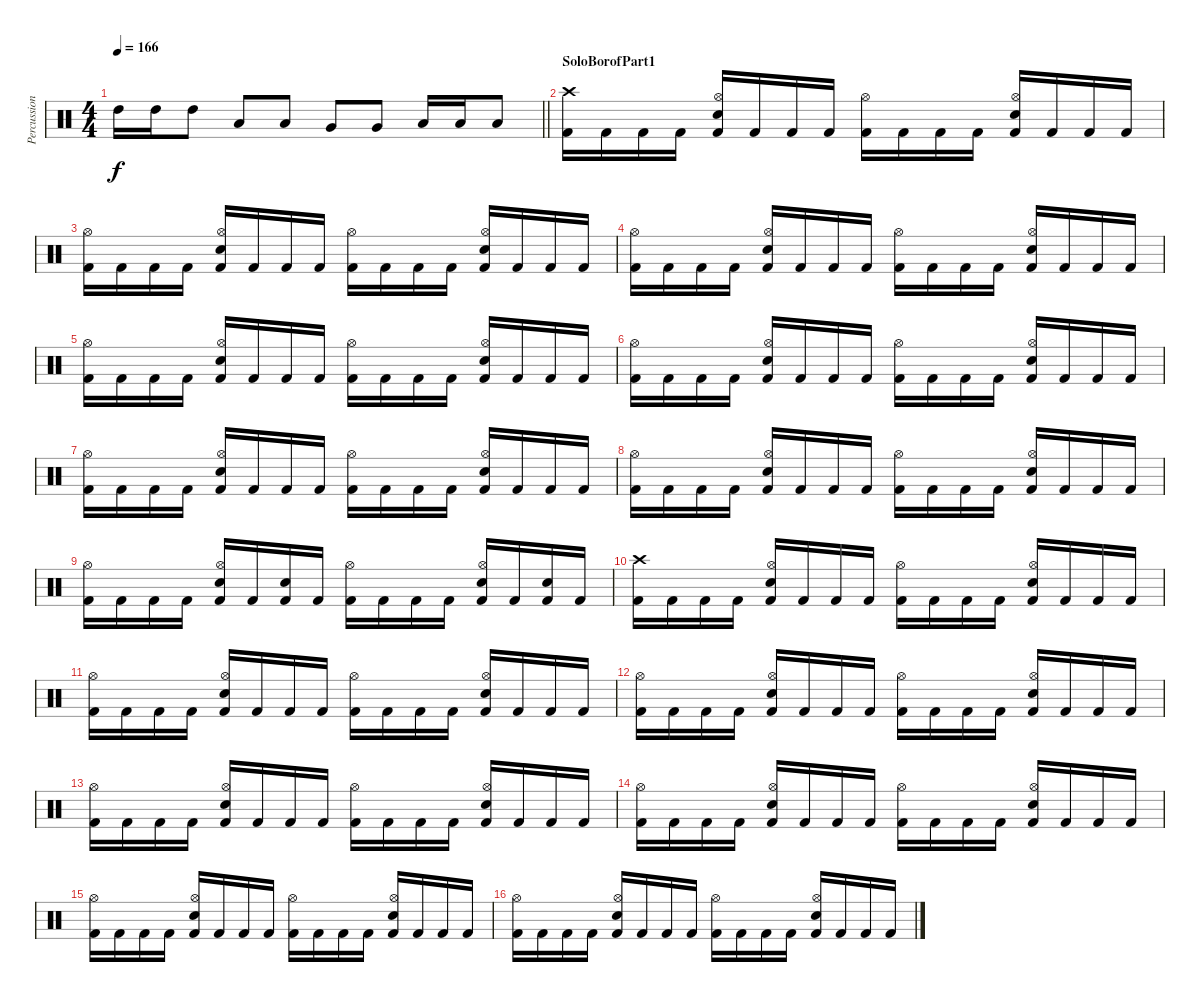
\track ("Percussion" "Percussion") {solo instrument percussion}
\staff {score}
\articulation defaults
\ts (4 4)
\tempo 166
\clef neutral
\barLineRight lightlight
\ks c "High Tom (hit)".16{dy f} "High Tom (hit)".16 "High Tom (hit)".8 "Low Tom (hit)".8 "Low Tom (hit)".8 "Very Low Tom (hit)".8 "Very Low Tom (hit)".8 "Low Floor Tom (hit)".16 "Low Floor Tom (hit)".16 "Low Floor Tom (hit)".8
|
\section ("" "SoloBorofPart1")
\ks aminor
("Crash high (hit)" "Kick (hit) 2").16 "Kick (hit) 2".16 "Kick (hit) 2".16 "Kick (hit) 2".16 ("Hi-Hat (open)" "Snare (hit) 2" "Kick (hit) 2").16 "Kick (hit) 2".16 "Kick (hit) 2".16 "Kick (hit) 2".16 ("Hi-Hat (open)" "Kick (hit) 2").16 "Kick (hit) 2".16 "Kick (hit) 2".16 "Kick (hit) 2".16 ("Hi-Hat (open)" "Snare (hit) 2" "Kick (hit) 2").16 "Kick (hit) 2".16 "Kick (hit) 2".16 "Kick (hit) 2".16 |
("Hi-Hat (open)" "Kick (hit) 2").16 "Kick (hit) 2".16 "Kick (hit) 2".16 "Kick (hit) 2".16 ("Hi-Hat (open)" "Snare (hit) 2" "Kick (hit) 2").16 "Kick (hit) 2".16 "Kick (hit) 2".16 "Kick (hit) 2".16 ("Hi-Hat (open)" "Kick (hit) 2").16 "Kick (hit) 2".16 "Kick (hit) 2".16 "Kick (hit) 2".16 ("Hi-Hat (open)" "Snare (hit) 2" "Kick (hit) 2").16 "Kick (hit) 2".16 "Kick (hit) 2".16 "Kick (hit) 2".16 |
("Hi-Hat (open)" "Kick (hit) 2").16 "Kick (hit) 2".16 "Kick (hit) 2".16 "Kick (hit) 2".16 ("Hi-Hat (open)" "Snare (hit) 2" "Kick (hit) 2").16 "Kick (hit) 2".16 "Kick (hit) 2".16 "Kick (hit) 2".16 ("Hi-Hat (open)" "Kick (hit) 2").16 "Kick (hit) 2".16 "Kick (hit) 2".16 "Kick (hit) 2".16 ("Hi-Hat (open)" "Snare (hit) 2" "Kick (hit) 2").16 "Kick (hit) 2".16 "Kick (hit) 2".16 "Kick (hit) 2".16 |
("Hi-Hat (open)" "Kick (hit) 2").16 "Kick (hit) 2".16 "Kick (hit) 2".16 "Kick (hit) 2".16 ("Hi-Hat (open)" "Snare (hit) 2" "Kick (hit) 2").16 "Kick (hit) 2".16 "Kick (hit) 2".16 "Kick (hit) 2".16 ("Hi-Hat (open)" "Kick (hit) 2").16 "Kick (hit) 2".16 "Kick (hit) 2".16 "Kick (hit) 2".16 ("Hi-Hat (open)" "Snare (hit) 2" "Kick (hit) 2").16 "Kick (hit) 2".16 "Kick (hit) 2".16 "Kick (hit) 2".16 |
("Hi-Hat (open)" "Kick (hit) 2").16 "Kick (hit) 2".16 "Kick (hit) 2".16 "Kick (hit) 2".16 ("Hi-Hat (open)" "Snare (hit) 2" "Kick (hit) 2").16 "Kick (hit) 2".16 "Kick (hit) 2".16 "Kick (hit) 2".16 ("Hi-Hat (open)" "Kick (hit) 2").16 "Kick (hit) 2".16 "Kick (hit) 2".16 "Kick (hit) 2".16 ("Hi-Hat (open)" "Snare (hit) 2" "Kick (hit) 2").16 "Kick (hit) 2".16 "Kick (hit) 2".16 "Kick (hit) 2".16 |
("Hi-Hat (open)" "Kick (hit) 2").16 "Kick (hit) 2".16 "Kick (hit) 2".16 "Kick (hit) 2".16 ("Hi-Hat (open)" "Snare (hit) 2" "Kick (hit) 2").16 "Kick (hit) 2".16 "Kick (hit) 2".16 "Kick (hit) 2".16 ("Hi-Hat (open)" "Kick (hit) 2").16 "Kick (hit) 2".16 "Kick (hit) 2".16 "Kick (hit) 2".16 ("Hi-Hat (open)" "Snare (hit) 2" "Kick (hit) 2").16 "Kick (hit) 2".16 "Kick (hit) 2".16 "Kick (hit) 2".16 |
("Hi-Hat (open)" "Kick (hit) 2").16 "Kick (hit) 2".16 "Kick (hit) 2".16 "Kick (hit) 2".16 ("Hi-Hat (open)" "Snare (hit) 2" "Kick (hit) 2").16 "Kick (hit) 2".16 "Kick (hit) 2".16 "Kick (hit) 2".16 ("Hi-Hat (open)" "Kick (hit) 2").16 "Kick (hit) 2".16 "Kick (hit) 2".16 "Kick (hit) 2".16 ("Hi-Hat (open)" "Snare (hit) 2" "Kick (hit) 2").16 "Kick (hit) 2".16 "Kick (hit) 2".16 "Kick (hit) 2".16 |
("Hi-Hat (open)" "Kick (hit) 2").16 "Kick (hit) 2".16 "Kick (hit) 2".16 "Kick (hit) 2".16 ("Hi-Hat (open)" "Snare (hit) 2" "Kick (hit) 2").16 "Kick (hit) 2".16 ("Snare (hit) 2" "Kick (hit) 2").16 "Kick (hit) 2".16 ("Hi-Hat (open)" "Kick (hit) 2").16 "Kick (hit) 2".16 "Kick (hit) 2".16 "Kick (hit) 2".16 ("Hi-Hat (open)" "Snare (hit) 2" "Kick (hit) 2").16 "Kick (hit) 2".16 ("Snare (hit) 2" "Kick (hit) 2").16 "Kick (hit) 2".16 |
("Crash high (hit)" "Kick (hit) 2").16 "Kick (hit) 2".16 "Kick (hit) 2".16 "Kick (hit) 2".16 ("Hi-Hat (open)" "Snare (hit) 2" "Kick (hit) 2").16 "Kick (hit) 2".16 "Kick (hit) 2".16 "Kick (hit) 2".16 ("Hi-Hat (open)" "Kick (hit) 2").16 "Kick (hit) 2".16 "Kick (hit) 2".16 "Kick (hit) 2".16 ("Hi-Hat (open)" "Snare (hit) 2" "Kick (hit) 2").16 "Kick (hit) 2".16 "Kick (hit) 2".16 "Kick (hit) 2".16 |
("Hi-Hat (open)" "Kick (hit) 2").16 "Kick (hit) 2".16 "Kick (hit) 2".16 "Kick (hit) 2".16 ("Hi-Hat (open)" "Snare (hit) 2" "Kick (hit) 2").16 "Kick (hit) 2".16 "Kick (hit) 2".16 "Kick (hit) 2".16 ("Hi-Hat (open)" "Kick (hit) 2").16 "Kick (hit) 2".16 "Kick (hit) 2".16 "Kick (hit) 2".16 ("Hi-Hat (open)" "Snare (hit) 2" "Kick (hit) 2").16 "Kick (hit) 2".16 "Kick (hit) 2".16 "Kick (hit) 2".16 |
("Hi-Hat (open)" "Kick (hit) 2").16 "Kick (hit) 2".16 "Kick (hit) 2".16 "Kick (hit) 2".16 ("Hi-Hat (open)" "Snare (hit) 2" "Kick (hit) 2").16 "Kick (hit) 2".16 "Kick (hit) 2".16 "Kick (hit) 2".16 ("Hi-Hat (open)" "Kick (hit) 2").16 "Kick (hit) 2".16 "Kick (hit) 2".16 "Kick (hit) 2".16 ("Hi-Hat (open)" "Snare (hit) 2" "Kick (hit) 2").16 "Kick (hit) 2".16 "Kick (hit) 2".16 "Kick (hit) 2".16 |
("Hi-Hat (open)" "Kick (hit) 2").16 "Kick (hit) 2".16 "Kick (hit) 2".16 "Kick (hit) 2".16 ("Hi-Hat (open)" "Snare (hit) 2" "Kick (hit) 2").16 "Kick (hit) 2".16 "Kick (hit) 2".16 "Kick (hit) 2".16 ("Hi-Hat (open)" "Kick (hit) 2").16 "Kick (hit) 2".16 "Kick (hit) 2".16 "Kick (hit) 2".16 ("Hi-Hat (open)" "Snare (hit) 2" "Kick (hit) 2").16 "Kick (hit) 2".16 "Kick (hit) 2".16 "Kick (hit) 2".16 |
("Hi-Hat (open)" "Kick (hit) 2").16 "Kick (hit) 2".16 "Kick (hit) 2".16 "Kick (hit) 2".16 ("Hi-Hat (open)" "Snare (hit) 2" "Kick (hit) 2").16 "Kick (hit) 2".16 "Kick (hit) 2".16 "Kick (hit) 2".16 ("Hi-Hat (open)" "Kick (hit) 2").16 "Kick (hit) 2".16 "Kick (hit) 2".16 "Kick (hit) 2".16 ("Hi-Hat (open)" "Snare (hit) 2" "Kick (hit) 2").16 "Kick (hit) 2".16 "Kick (hit) 2".16 "Kick (hit) 2".16 |
("Hi-Hat (open)" "Kick (hit) 2").16 "Kick (hit) 2".16 "Kick (hit) 2".16 "Kick (hit) 2".16 ("Hi-Hat (open)" "Snare (hit) 2" "Kick (hit) 2").16 "Kick (hit) 2".16 "Kick (hit) 2".16 "Kick (hit) 2".16 ("Hi-Hat (open)" "Kick (hit) 2").16 "Kick (hit) 2".16 "Kick (hit) 2".16 "Kick (hit) 2".16 ("Hi-Hat (open)" "Snare (hit) 2" "Kick (hit) 2").16 "Kick (hit) 2".16 "Kick (hit) 2".16 "Kick (hit) 2".16 |
("Hi-Hat (open)" "Kick (hit) 2").16 "Kick (hit) 2".16 "Kick (hit) 2".16 "Kick (hit) 2".16 ("Hi-Hat (open)" "Snare (hit) 2" "Kick (hit) 2").16 "Kick (hit) 2".16 "Kick (hit) 2".16 "Kick (hit) 2".16 ("Hi-Hat (open)" "Kick (hit) 2").16 "Kick (hit) 2".16 "Kick (hit) 2".16 "Kick (hit) 2".16 ("Hi-Hat (open)" "Snare (hit) 2" "Kick (hit) 2").16 "Kick (hit) 2".16 "Kick (hit) 2".16 "Kick (hit) 2".16
